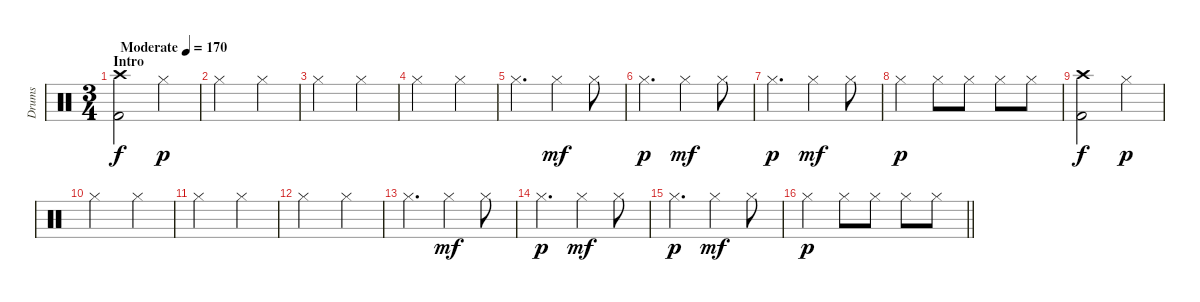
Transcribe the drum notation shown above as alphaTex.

\track ("Drums" "Drums") {instrument percussion}
\staff {score}
\articulation defaults
\ts (3 4)
\section ("" "Intro")
\tempo (170 "Moderate")
\clef neutral
\ks c
("Crash high (hit)" "Kick (hit) 2").2{dy f} "Hi-Hat (closed)".4{dy p} |
"Hi-Hat (closed)".2 "Hi-Hat (closed)".4 |
"Hi-Hat (closed)".2 "Hi-Hat (closed)".4 |
"Hi-Hat (closed)".2 "Hi-Hat (closed)".4 |
"Hi-Hat (closed)".4{d} "Hi-Hat (closed)".4{dy mf} "Hi-Hat (closed)".8 |
"Hi-Hat (closed)".4{d dy p} "Hi-Hat (closed)".4{dy mf} "Hi-Hat (closed)".8 |
"Hi-Hat (closed)".4{d dy p} "Hi-Hat (closed)".4{dy mf} "Hi-Hat (closed)".8 |
"Hi-Hat (closed)".4{dy p} "Hi-Hat (closed)".8 "Hi-Hat (closed)".8 "Hi-Hat (closed)".8 "Hi-Hat (closed)".8 |
("Crash high (hit)" "Kick (hit) 2").2{dy f} "Hi-Hat (closed)".4{dy p} |
"Hi-Hat (closed)".2 "Hi-Hat (closed)".4 |
"Hi-Hat (closed)".2 "Hi-Hat (closed)".4 |
"Hi-Hat (closed)".2 "Hi-Hat (closed)".4 |
"Hi-Hat (closed)".4{d} "Hi-Hat (closed)".4{dy mf} "Hi-Hat (closed)".8 |
"Hi-Hat (closed)".4{d dy p} "Hi-Hat (closed)".4{dy mf} "Hi-Hat (closed)".8 |
"Hi-Hat (closed)".4{d dy p} "Hi-Hat (closed)".4{dy mf} "Hi-Hat (closed)".8 |
\barLineRight lightlight "Hi-Hat (closed)".4{dy p} "Hi-Hat (closed)".8 "Hi-Hat (closed)".8 "Hi-Hat (closed)".8 "Hi-Hat (closed)".8
